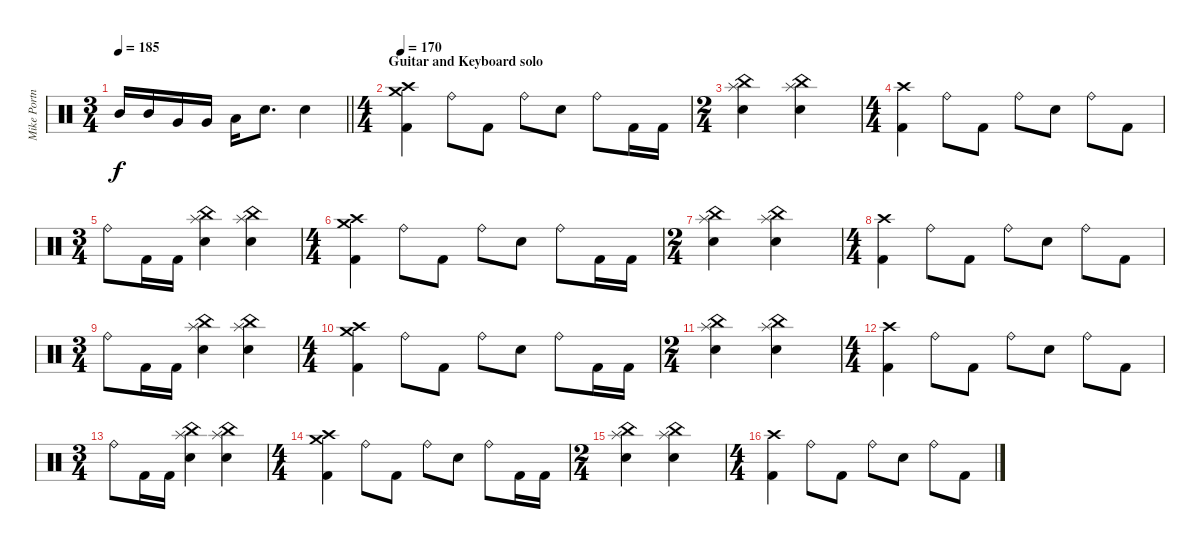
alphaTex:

\track ("Mike Portnoy" "Mike Portn") {instrument percussion}
\staff {score}
\articulation defaults
\ts (3 4)
\tempo 185
\clef neutral
\barLineRight lightlight
\ks c "Mid Tom (hit)".16{dy f} "Mid Tom (hit)".16 "Very Low Tom (hit)".16 "Very Low Tom (hit)".16 "Low Tom (hit)".16 "Electric Snare (hit)".8{d} "Electric Snare (hit)".4
|
\ts (4 4)
\section ("" "Guitar and Keyboard solo")
\tempo 170
("Crash high (hit)" "Crash medium (hit)" "Kick (hit) 2").4 "Ride (bell)".8 "Kick (hit) 2".8 "Ride (bell)".8 "Electric Snare (hit)".8 "Ride (bell)".8 "Kick (hit) 2".16 "Kick (hit) 2".16 |
\ts (2 4)
("China (hit)" "Splash (hit)" "Electric Snare (hit)").4 ("China (hit)" "Splash (hit)" "Electric Snare (hit)").4 |
\ts (4 4)
("Crash high (hit)" "Kick (hit) 2").4 "Ride (bell)".8 "Kick (hit) 2".8 "Ride (bell)".8 "Electric Snare (hit)".8 "Ride (bell)".8 "Kick (hit) 2".8 |
\ts (3 4)
"Ride (bell)".8 "Kick (hit) 2".16 "Kick (hit) 2".16 ("China (hit)" "Splash (hit)" "Electric Snare (hit)").4 ("China (hit)" "Splash (hit)" "Electric Snare (hit)").4 |
\ts (4 4)
("Crash high (hit)" "Crash medium (hit)" "Kick (hit) 2").4 "Ride (bell)".8 "Kick (hit) 2".8 "Ride (bell)".8 "Electric Snare (hit)".8 "Ride (bell)".8 "Kick (hit) 2".16 "Kick (hit) 2".16 |
\ts (2 4)
("China (hit)" "Splash (hit)" "Electric Snare (hit)").4 ("China (hit)" "Splash (hit)" "Electric Snare (hit)").4 |
\ts (4 4)
("Crash high (hit)" "Kick (hit) 2").4 "Ride (bell)".8 "Kick (hit) 2".8 "Ride (bell)".8 "Electric Snare (hit)".8 "Ride (bell)".8 "Kick (hit) 2".8 |
\ts (3 4)
"Ride (bell)".8 "Kick (hit) 2".16 "Kick (hit) 2".16 ("China (hit)" "Splash (hit)" "Electric Snare (hit)").4 ("China (hit)" "Splash (hit)" "Electric Snare (hit)").4 |
\ts (4 4)
("Crash high (hit)" "Crash medium (hit)" "Kick (hit) 2").4 "Ride (bell)".8 "Kick (hit) 2".8 "Ride (bell)".8 "Electric Snare (hit)".8 "Ride (bell)".8 "Kick (hit) 2".16 "Kick (hit) 2".16 |
\ts (2 4)
("China (hit)" "Splash (hit)" "Electric Snare (hit)").4 ("China (hit)" "Splash (hit)" "Electric Snare (hit)").4 |
\ts (4 4)
("Crash high (hit)" "Kick (hit) 2").4 "Ride (bell)".8 "Kick (hit) 2".8 "Ride (bell)".8 "Electric Snare (hit)".8 "Ride (bell)".8 "Kick (hit) 2".8 |
\ts (3 4)
"Ride (bell)".8 "Kick (hit) 2".16 "Kick (hit) 2".16 ("China (hit)" "Splash (hit)" "Electric Snare (hit)").4 ("China (hit)" "Splash (hit)" "Electric Snare (hit)").4 |
\ts (4 4)
("Crash high (hit)" "Crash medium (hit)" "Kick (hit) 2").4 "Ride (bell)".8 "Kick (hit) 2".8 "Ride (bell)".8 "Electric Snare (hit)".8 "Ride (bell)".8 "Kick (hit) 2".16 "Kick (hit) 2".16 |
\ts (2 4)
("China (hit)" "Splash (hit)" "Electric Snare (hit)").4 ("China (hit)" "Splash (hit)" "Electric Snare (hit)").4 |
\ts (4 4)
("Crash high (hit)" "Kick (hit) 2").4 "Ride (bell)".8 "Kick (hit) 2".8 "Ride (bell)".8 "Electric Snare (hit)".8 "Ride (bell)".8 "Kick (hit) 2".8
